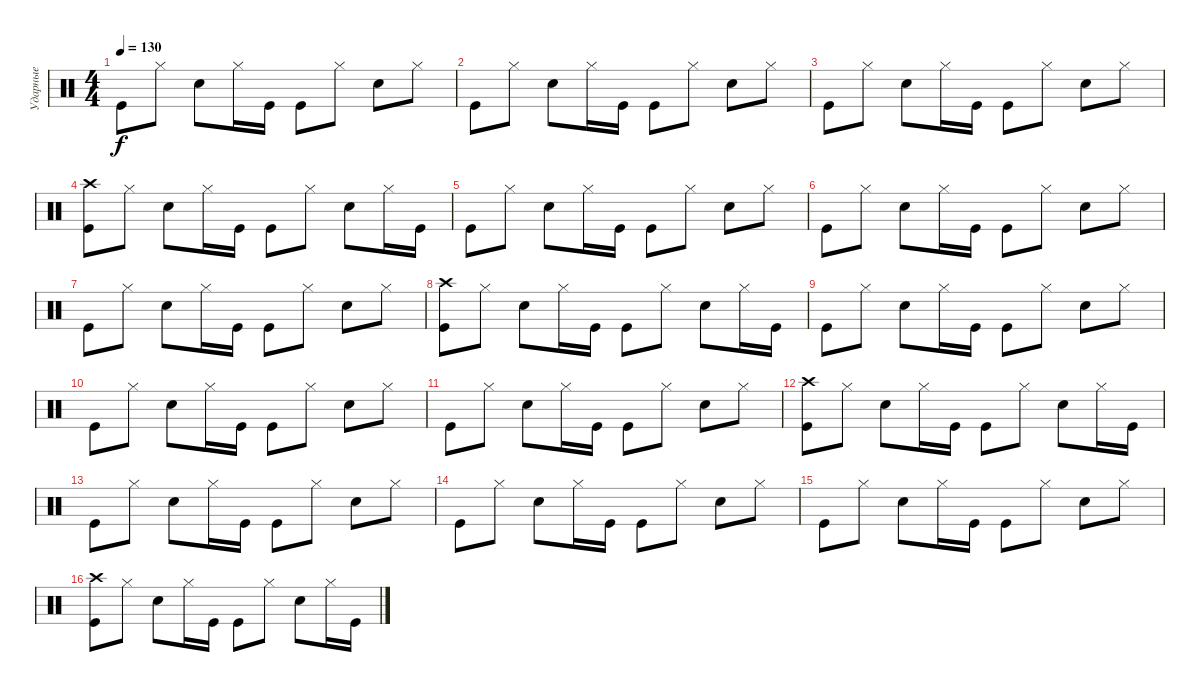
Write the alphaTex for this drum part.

\track ("Ударные" "Ударные") {instrument percussion}
\staff {score}
\articulation defaults
\ts (4 4)
\tempo 130
\clef neutral
\ks c "Kick (hit)".8{dy f} "Hi-Hat (closed)".8 "Electric Snare (hit)".8 "Hi-Hat (closed)".16 "Kick (hit)".16 "Kick (hit)".8 "Hi-Hat (closed)".8 "Electric Snare (hit)".8 "Hi-Hat (closed)".8
|
"Kick (hit)".8 "Hi-Hat (closed)".8 "Electric Snare (hit)".8 "Hi-Hat (closed)".16 "Kick (hit)".16 "Kick (hit)".8 "Hi-Hat (closed)".8 "Electric Snare (hit)".8 "Hi-Hat (closed)".8 |
"Kick (hit)".8 "Hi-Hat (closed)".8 "Electric Snare (hit)".8 "Hi-Hat (closed)".16 "Kick (hit)".16 "Kick (hit)".8 "Hi-Hat (closed)".8 "Electric Snare (hit)".8 "Hi-Hat (closed)".8 |
("Crash high (hit)" "Kick (hit)").8 "Hi-Hat (closed)".8 "Electric Snare (hit)".8 "Hi-Hat (closed)".16 "Kick (hit)".16 "Kick (hit)".8 "Hi-Hat (closed)".8 "Electric Snare (hit)".8 "Hi-Hat (closed)".16 "Kick (hit)".16 |
"Kick (hit)".8 "Hi-Hat (closed)".8 "Electric Snare (hit)".8 "Hi-Hat (closed)".16 "Kick (hit)".16 "Kick (hit)".8 "Hi-Hat (closed)".8 "Electric Snare (hit)".8 "Hi-Hat (closed)".8 |
"Kick (hit)".8 "Hi-Hat (closed)".8 "Electric Snare (hit)".8 "Hi-Hat (closed)".16 "Kick (hit)".16 "Kick (hit)".8 "Hi-Hat (closed)".8 "Electric Snare (hit)".8 "Hi-Hat (closed)".8 |
"Kick (hit)".8 "Hi-Hat (closed)".8 "Electric Snare (hit)".8 "Hi-Hat (closed)".16 "Kick (hit)".16 "Kick (hit)".8 "Hi-Hat (closed)".8 "Electric Snare (hit)".8 "Hi-Hat (closed)".8 |
("Crash high (hit)" "Kick (hit)").8 "Hi-Hat (closed)".8 "Electric Snare (hit)".8 "Hi-Hat (closed)".16 "Kick (hit)".16 "Kick (hit)".8 "Hi-Hat (closed)".8 "Electric Snare (hit)".8 "Hi-Hat (closed)".16 "Kick (hit)".16 |
"Kick (hit)".8 "Hi-Hat (closed)".8 "Electric Snare (hit)".8 "Hi-Hat (closed)".16 "Kick (hit)".16 "Kick (hit)".8 "Hi-Hat (closed)".8 "Electric Snare (hit)".8 "Hi-Hat (closed)".8 |
"Kick (hit)".8 "Hi-Hat (closed)".8 "Electric Snare (hit)".8 "Hi-Hat (closed)".16 "Kick (hit)".16 "Kick (hit)".8 "Hi-Hat (closed)".8 "Electric Snare (hit)".8 "Hi-Hat (closed)".8 |
"Kick (hit)".8 "Hi-Hat (closed)".8 "Electric Snare (hit)".8 "Hi-Hat (closed)".16 "Kick (hit)".16 "Kick (hit)".8 "Hi-Hat (closed)".8 "Electric Snare (hit)".8 "Hi-Hat (closed)".8 |
("Crash high (hit)" "Kick (hit)").8 "Hi-Hat (closed)".8 "Electric Snare (hit)".8 "Hi-Hat (closed)".16 "Kick (hit)".16 "Kick (hit)".8 "Hi-Hat (closed)".8 "Electric Snare (hit)".8 "Hi-Hat (closed)".16 "Kick (hit)".16 |
"Kick (hit)".8 "Hi-Hat (closed)".8 "Electric Snare (hit)".8 "Hi-Hat (closed)".16 "Kick (hit)".16 "Kick (hit)".8 "Hi-Hat (closed)".8 "Electric Snare (hit)".8 "Hi-Hat (closed)".8 |
"Kick (hit)".8 "Hi-Hat (closed)".8 "Electric Snare (hit)".8 "Hi-Hat (closed)".16 "Kick (hit)".16 "Kick (hit)".8 "Hi-Hat (closed)".8 "Electric Snare (hit)".8 "Hi-Hat (closed)".8 |
"Kick (hit)".8 "Hi-Hat (closed)".8 "Electric Snare (hit)".8 "Hi-Hat (closed)".16 "Kick (hit)".16 "Kick (hit)".8 "Hi-Hat (closed)".8 "Electric Snare (hit)".8 "Hi-Hat (closed)".8 |
("Crash high (hit)" "Kick (hit)").8 "Hi-Hat (closed)".8 "Electric Snare (hit)".8 "Hi-Hat (closed)".16 "Kick (hit)".16 "Kick (hit)".8 "Hi-Hat (closed)".8 "Electric Snare (hit)".8 "Hi-Hat (closed)".16 "Kick (hit)".16
